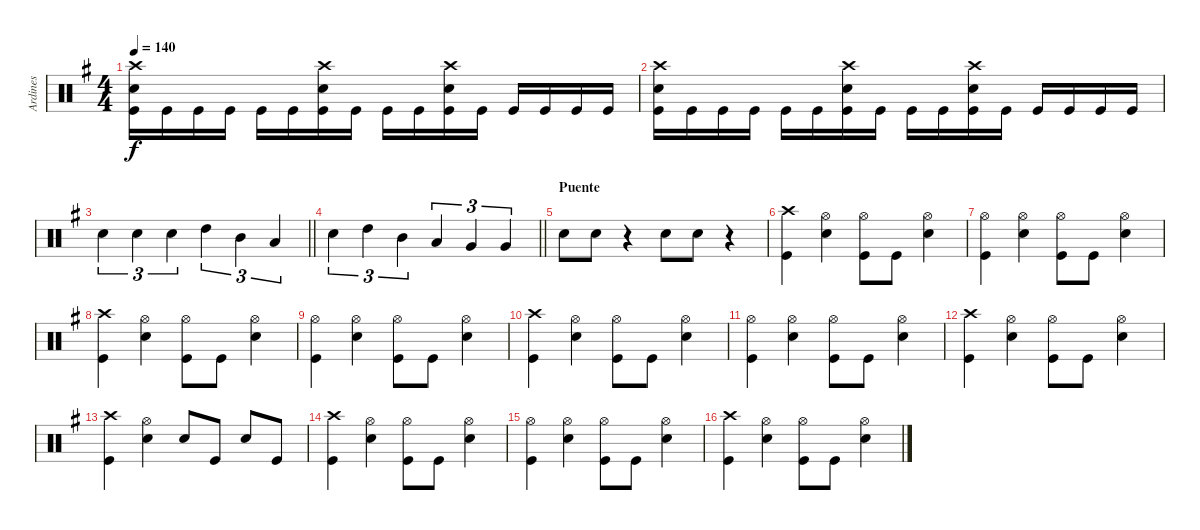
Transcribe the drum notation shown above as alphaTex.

\track ("Ardines" "Ardines") {instrument percussion}
\staff {score}
\articulation defaults
\ts (4 4)
\tempo 140
\clef neutral
\ks g
("Crash high (hit)" "Electric Snare (hit)" "Kick (hit)").16{dy f} "Kick (hit)".16 "Kick (hit)".16 "Kick (hit)".16 "Kick (hit)".16 "Kick (hit)".16 ("Crash high (hit)" "Electric Snare (hit)" "Kick (hit)").16 "Kick (hit)".16 "Kick (hit)".16 "Kick (hit)".16 ("Crash high (hit)" "Electric Snare (hit)" "Kick (hit)").16 "Kick (hit)".16 "Kick (hit)".16 "Kick (hit)".16 "Kick (hit)".16 "Kick (hit)".16 |
("Crash high (hit)" "Electric Snare (hit)" "Kick (hit)").16 "Kick (hit)".16 "Kick (hit)".16 "Kick (hit)".16 "Kick (hit)".16 "Kick (hit)".16 ("Crash high (hit)" "Electric Snare (hit)" "Kick (hit)").16 "Kick (hit)".16 "Kick (hit)".16 "Kick (hit)".16 ("Crash high (hit)" "Electric Snare (hit)" "Kick (hit)").16 "Kick (hit)".16 "Kick (hit)".16 "Kick (hit)".16 "Kick (hit)".16 "Kick (hit)".16 |
\barLineRight lightlight "Electric Snare (hit)".4{tu (3 2)} "Electric Snare (hit)".4{tu (3 2)} "Electric Snare (hit)".4{tu (3 2)} "High Tom (hit)".4{tu (3 2)} "Mid Tom (hit)".4{tu (3 2)} "Low Tom (hit)".4{tu (3 2)}
|
\barLineRight lightlight "Electric Snare (hit)".4{tu (3 2)} "High Tom (hit)".4{tu (3 2)} "Mid Tom (hit)".4{tu (3 2)} "Low Tom (hit)".4{tu (3 2)} "Very Low Tom (hit)".4{tu (3 2)} "Very Low Tom (hit)".4{tu (3 2)}
|
\section ("" "Puente")
"Electric Snare (hit)".8 "Electric Snare (hit)".8 r.4 "Electric Snare (hit)".8 "Electric Snare (hit)".8 r.4 |
("Crash high (hit)" "Kick (hit)").4 ("Hi-Hat (open)" "Electric Snare (hit)").4 ("Hi-Hat (open)" "Kick (hit)").8 "Kick (hit)".8 ("Hi-Hat (open)" "Electric Snare (hit)").4 |
("Hi-Hat (open)" "Kick (hit)").4 ("Hi-Hat (open)" "Electric Snare (hit)").4 ("Hi-Hat (open)" "Kick (hit)").8 "Kick (hit)".8 ("Hi-Hat (open)" "Electric Snare (hit)").4 |
("Crash high (hit)" "Kick (hit)").4 ("Hi-Hat (open)" "Electric Snare (hit)").4 ("Hi-Hat (open)" "Kick (hit)").8 "Kick (hit)".8 ("Hi-Hat (open)" "Electric Snare (hit)").4 |
("Hi-Hat (open)" "Kick (hit)").4 ("Hi-Hat (open)" "Electric Snare (hit)").4 ("Hi-Hat (open)" "Kick (hit)").8 "Kick (hit)".8 ("Hi-Hat (open)" "Electric Snare (hit)").4 |
("Crash high (hit)" "Kick (hit)").4 ("Hi-Hat (open)" "Electric Snare (hit)").4 ("Hi-Hat (open)" "Kick (hit)").8 "Kick (hit)".8 ("Hi-Hat (open)" "Electric Snare (hit)").4 |
("Hi-Hat (open)" "Kick (hit)").4 ("Hi-Hat (open)" "Electric Snare (hit)").4 ("Hi-Hat (open)" "Kick (hit)").8 "Kick (hit)".8 ("Hi-Hat (open)" "Electric Snare (hit)").4 |
("Crash high (hit)" "Kick (hit)").4 ("Hi-Hat (open)" "Electric Snare (hit)").4 ("Hi-Hat (open)" "Kick (hit)").8 "Kick (hit)".8 ("Hi-Hat (open)" "Electric Snare (hit)").4 |
("Crash high (hit)" "Kick (hit)").4 ("Hi-Hat (open)" "Electric Snare (hit)").4 "Electric Snare (hit)".8 "Kick (hit)".8 "Electric Snare (hit)".8 "Kick (hit)".8 |
("Crash high (hit)" "Kick (hit)").4 ("Hi-Hat (open)" "Electric Snare (hit)").4 ("Hi-Hat (open)" "Kick (hit)").8 "Kick (hit)".8 ("Hi-Hat (open)" "Electric Snare (hit)").4 |
("Hi-Hat (open)" "Kick (hit)").4 ("Hi-Hat (open)" "Electric Snare (hit)").4 ("Hi-Hat (open)" "Kick (hit)").8 "Kick (hit)".8 ("Hi-Hat (open)" "Electric Snare (hit)").4 |
("Crash high (hit)" "Kick (hit)").4 ("Hi-Hat (open)" "Electric Snare (hit)").4 ("Hi-Hat (open)" "Kick (hit)").8 "Kick (hit)".8 ("Hi-Hat (open)" "Electric Snare (hit)").4
